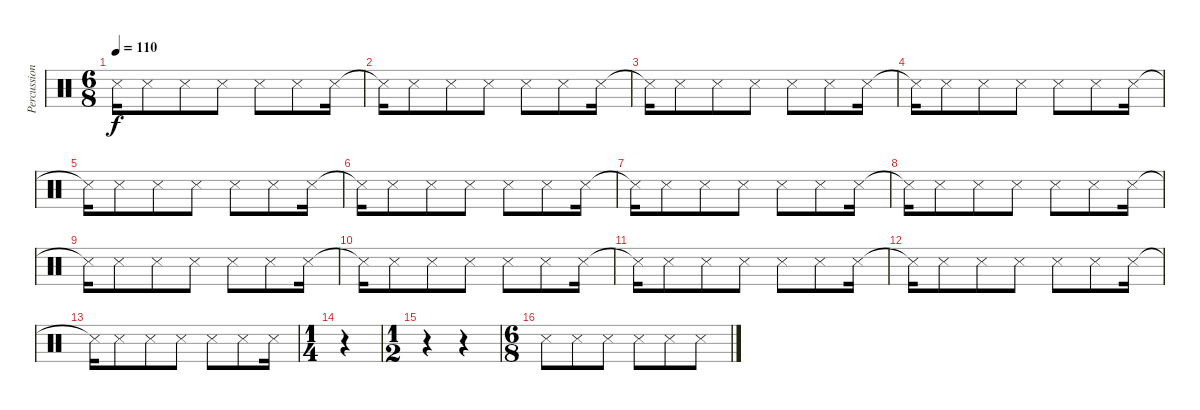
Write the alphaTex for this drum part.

\track ("Percussion" "Percussion") {instrument percussion}
\staff {score}
\articulation defaults
\ts (6 8)
\tempo 110
\clef neutral
\ks c "Snare (side stick) 3"{t}.16{dy f} "Snare (side stick) 3".8 "Snare (side stick) 3".8 "Snare (side stick) 3".8 "Snare (side stick) 3".8 "Snare (side stick) 3".8 "Snare (side stick) 3".16
|
"Snare (side stick) 3"{t}.16 "Snare (side stick) 3".8 "Snare (side stick) 3".8 "Snare (side stick) 3".8 "Snare (side stick) 3".8 "Snare (side stick) 3".8 "Snare (side stick) 3".16 |
"Snare (side stick) 3"{t}.16 "Snare (side stick) 3".8 "Snare (side stick) 3".8 "Snare (side stick) 3".8 "Snare (side stick) 3".8 "Snare (side stick) 3".8 "Snare (side stick) 3".16 |
"Snare (side stick) 3"{t}.16 "Snare (side stick) 3".8 "Snare (side stick) 3".8 "Snare (side stick) 3".8 "Snare (side stick) 3".8 "Snare (side stick) 3".8 "Snare (side stick) 3".16 |
"Snare (side stick) 3"{t}.16 "Snare (side stick) 3".8 "Snare (side stick) 3".8 "Snare (side stick) 3".8 "Snare (side stick) 3".8 "Snare (side stick) 3".8 "Snare (side stick) 3".16 |
"Snare (side stick) 3"{t}.16 "Snare (side stick) 3".8 "Snare (side stick) 3".8 "Snare (side stick) 3".8 "Snare (side stick) 3".8 "Snare (side stick) 3".8 "Snare (side stick) 3".16 |
"Snare (side stick) 3"{t}.16 "Snare (side stick) 3".8 "Snare (side stick) 3".8 "Snare (side stick) 3".8 "Snare (side stick) 3".8 "Snare (side stick) 3".8 "Snare (side stick) 3".16 |
"Snare (side stick) 3"{t}.16 "Snare (side stick) 3".8 "Snare (side stick) 3".8 "Snare (side stick) 3".8 "Snare (side stick) 3".8 "Snare (side stick) 3".8 "Snare (side stick) 3".16 |
"Snare (side stick) 3"{t}.16 "Snare (side stick) 3".8 "Snare (side stick) 3".8 "Snare (side stick) 3".8 "Snare (side stick) 3".8 "Snare (side stick) 3".8 "Snare (side stick) 3".16 |
"Snare (side stick) 3"{t}.16 "Snare (side stick) 3".8 "Snare (side stick) 3".8 "Snare (side stick) 3".8 "Snare (side stick) 3".8 "Snare (side stick) 3".8 "Snare (side stick) 3".16 |
"Snare (side stick) 3"{t}.16 "Snare (side stick) 3".8 "Snare (side stick) 3".8 "Snare (side stick) 3".8 "Snare (side stick) 3".8 "Snare (side stick) 3".8 "Snare (side stick) 3".16 |
"Snare (side stick) 3"{t}.16 "Snare (side stick) 3".8 "Snare (side stick) 3".8 "Snare (side stick) 3".8 "Snare (side stick) 3".8 "Snare (side stick) 3".8 "Snare (side stick) 3".16 |
"Snare (side stick) 3"{t}.16 "Snare (side stick) 3".8 "Snare (side stick) 3".8 "Snare (side stick) 3".8 "Snare (side stick) 3".8 "Snare (side stick) 3".8 "Snare (side stick) 3".16 |
\ts (1 4)
r.4 |
\ts (1 2)
r.4 r.4 |
\ts (6 8)
"Snare (side stick) 3".8 "Snare (side stick) 3".8 "Snare (side stick) 3".8 "Snare (side stick) 3".8 "Snare (side stick) 3".8 "Snare (side stick) 3".8
